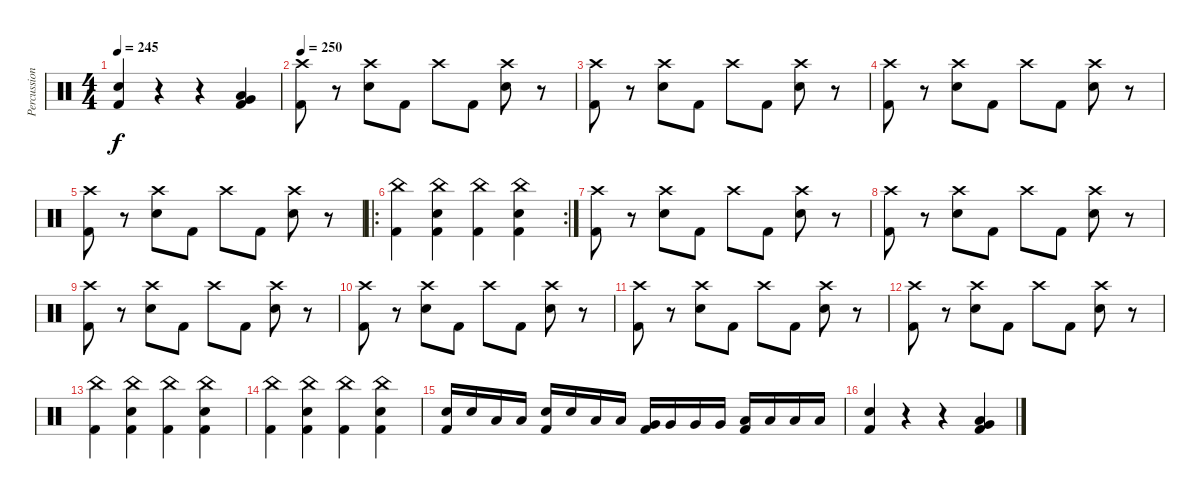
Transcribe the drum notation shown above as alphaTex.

\track ("Percussion" "Percussion") {instrument percussion}
\staff {score}
\articulation defaults
\ts (4 4)
\tempo 245
\clef neutral
\ks c
("Snare (hit) 2" "Kick (hit) 2").4{dy f} r.4 r.4 ("Low Tom (hit)" "Very Low Tom (hit)" "Kick (hit) 2").4 |
\tempo 250
("Crash high (hit)" "Kick (hit) 2").8 r.8 ("Crash high (hit)" "Snare (hit) 2").8 "Kick (hit) 2".8 "Crash high (hit)".8 "Kick (hit) 2".8 ("Crash high (hit)" "Snare (hit) 2").8 r.8 |
("Crash high (hit)" "Kick (hit) 2").8 r.8 ("Crash high (hit)" "Snare (hit) 2").8 "Kick (hit) 2".8 "Crash high (hit)".8 "Kick (hit) 2".8 ("Crash high (hit)" "Snare (hit) 2").8 r.8 |
("Crash high (hit)" "Kick (hit) 2").8 r.8 ("Crash high (hit)" "Snare (hit) 2").8 "Kick (hit) 2".8 "Crash high (hit)".8 "Kick (hit) 2".8 ("Crash high (hit)" "Snare (hit) 2").8 r.8 |
("Crash high (hit)" "Kick (hit) 2").8 r.8 ("Crash high (hit)" "Snare (hit) 2").8 "Kick (hit) 2".8 "Crash high (hit)".8 "Kick (hit) 2".8 ("Crash high (hit)" "Snare (hit) 2").8 r.8 |
\ro
\rc 2
("China (hit)" "Kick (hit) 2").4 ("China (hit)" "Snare (hit) 2" "Kick (hit) 2").4 ("China (hit)" "Kick (hit) 2").4 ("China (hit)" "Snare (hit) 2" "Kick (hit) 2").4 |
("Crash high (hit)" "Kick (hit) 2").8 r.8 ("Crash high (hit)" "Snare (hit) 2").8 "Kick (hit) 2".8 "Crash high (hit)".8 "Kick (hit) 2".8 ("Crash high (hit)" "Snare (hit) 2").8 r.8 |
("Crash high (hit)" "Kick (hit) 2").8 r.8 ("Crash high (hit)" "Snare (hit) 2").8 "Kick (hit) 2".8 "Crash high (hit)".8 "Kick (hit) 2".8 ("Crash high (hit)" "Snare (hit) 2").8 r.8 |
("Crash high (hit)" "Kick (hit) 2").8 r.8 ("Crash high (hit)" "Snare (hit) 2").8 "Kick (hit) 2".8 "Crash high (hit)".8 "Kick (hit) 2".8 ("Crash high (hit)" "Snare (hit) 2").8 r.8 |
("Crash high (hit)" "Kick (hit) 2").8 r.8 ("Crash high (hit)" "Snare (hit) 2").8 "Kick (hit) 2".8 "Crash high (hit)".8 "Kick (hit) 2".8 ("Crash high (hit)" "Snare (hit) 2").8 r.8 |
("Crash high (hit)" "Kick (hit) 2").8 r.8 ("Crash high (hit)" "Snare (hit) 2").8 "Kick (hit) 2".8 "Crash high (hit)".8 "Kick (hit) 2".8 ("Crash high (hit)" "Snare (hit) 2").8 r.8 |
("Crash high (hit)" "Kick (hit) 2").8 r.8 ("Crash high (hit)" "Snare (hit) 2").8 "Kick (hit) 2".8 "Crash high (hit)".8 "Kick (hit) 2".8 ("Crash high (hit)" "Snare (hit) 2").8 r.8 |
("China (hit)" "Kick (hit) 2").4 ("China (hit)" "Snare (hit) 2" "Kick (hit) 2").4 ("China (hit)" "Kick (hit) 2").4 ("China (hit)" "Snare (hit) 2" "Kick (hit) 2").4 |
("China (hit)" "Kick (hit) 2").4 ("China (hit)" "Snare (hit) 2" "Kick (hit) 2").4 ("China (hit)" "Kick (hit) 2").4 ("China (hit)" "Snare (hit) 2" "Kick (hit) 2").4 |
("Snare (hit) 2" "Kick (hit) 2").16 "Snare (hit) 2".16 "Low Tom (hit)".16 "Low Tom (hit)".16 ("Snare (hit) 2" "Kick (hit) 2").16 "Snare (hit) 2".16 "Low Tom (hit)".16 "Low Tom (hit)".16 ("Very Low Tom (hit)" "Kick (hit) 2").16 "Very Low Tom (hit)".16 "Very Low Tom (hit)".16 "Very Low Tom (hit)".16 ("Low Floor Tom (hit)" "Kick (hit) 2").16 "Low Floor Tom (hit)".16 "Low Floor Tom (hit)".16 "Low Floor Tom (hit)".16 |
("Snare (hit) 2" "Kick (hit) 2").4 r.4 r.4 ("Low Tom (hit)" "Very Low Tom (hit)" "Kick (hit) 2").4
